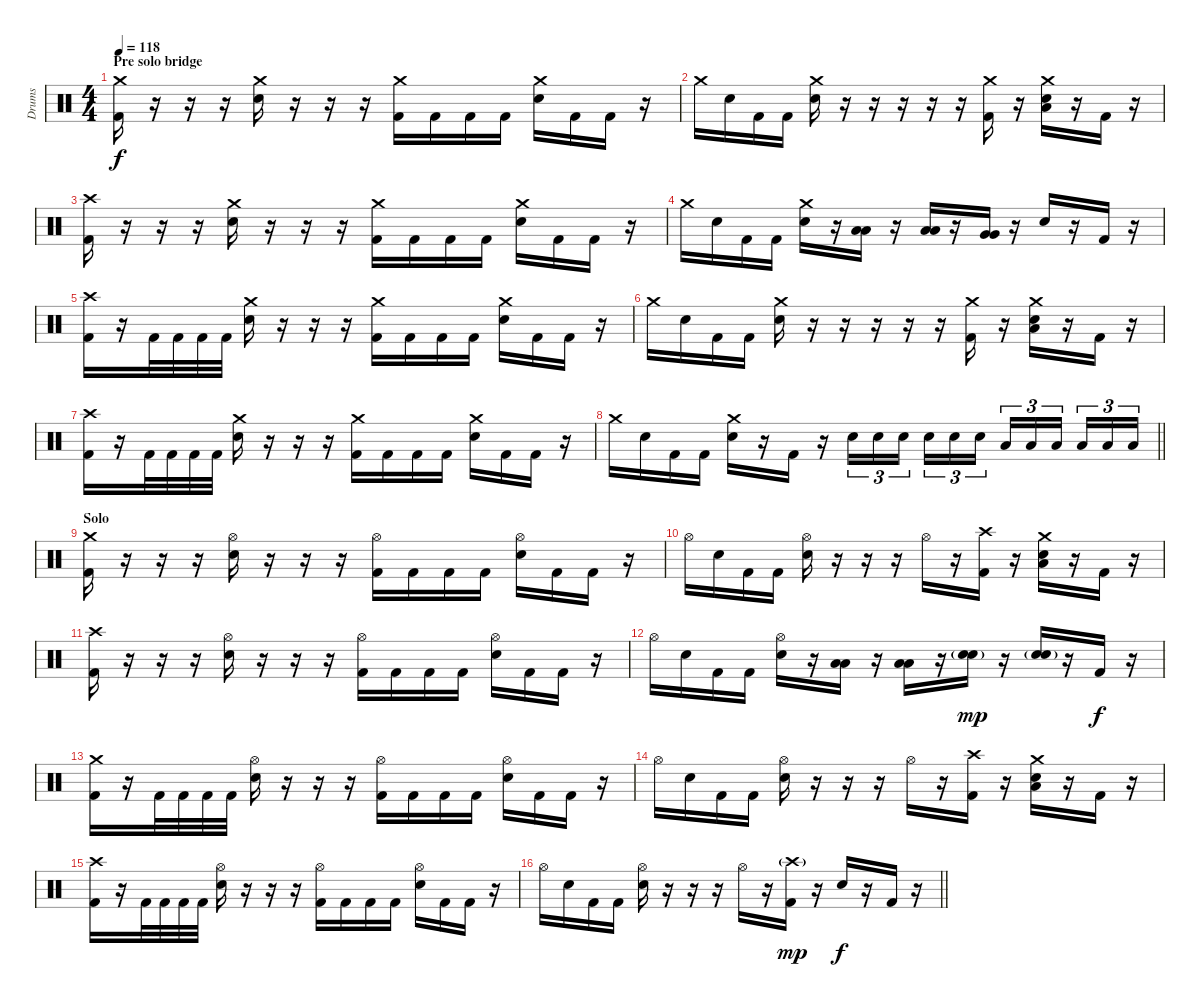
\track ("Drums" "Drums") {instrument percussion}
\staff {score}
\articulation defaults
\ts (4 4)
\section ("" "Pre solo bridge")
\tempo 118
\clef neutral
\ks c
("Crash medium (hit)" "Kick (hit) 2").16{dy f} r.16 r.16 r.16 ("Crash medium (hit)" "Electric Snare (hit)").16 r.16 r.16 r.16 ("Crash medium (hit)" "Kick (hit) 2").16 "Kick (hit) 2".16 "Kick (hit) 2".16 "Kick (hit) 2".16 ("Crash medium (hit)" "Electric Snare (hit)").16 "Kick (hit) 2".16 "Kick (hit) 2".16 r.16 |
"Crash medium (hit)".16 "Electric Snare (hit)".16 "Kick (hit) 2".16 "Kick (hit) 2".16 ("Crash medium (hit)" "Electric Snare (hit)").16 r.16 r.16 r.16 r.16 r.16 ("Crash medium (hit)" "Kick (hit) 2").16 r.16 ("Crash medium (hit)" "Low Floor Tom (hit)" "Electric Snare (hit)").16 r.16 "Kick (hit) 2".16 r.16 |
("Crash high (hit)" "Kick (hit) 2").16 r.16 r.16 r.16 ("Crash medium (hit)" "Electric Snare (hit)").16 r.16 r.16 r.16 ("Crash medium (hit)" "Kick (hit) 2").16 "Kick (hit) 2".16 "Kick (hit) 2".16 "Kick (hit) 2".16 ("Crash medium (hit)" "Electric Snare (hit)").16 "Kick (hit) 2".16 "Kick (hit) 2".16 r.16 |
"Crash medium (hit)".16 "Electric Snare (hit)".16 "Kick (hit) 2".16 "Kick (hit) 2".16 ("Crash medium (hit)" "Electric Snare (hit)").16 r.16 ("Low Tom (hit)" "Low Tom (hit)").16 r.16 ("Low Tom (hit)" "Low Tom (hit)").16 r.16 ("Very Low Tom (hit)" "Very Low Tom (hit)").16 r.16 "Electric Snare (hit)".16 r.16 "Kick (hit) 2".16 r.16 |
("Crash high (hit)" "Kick (hit) 2").16 r.16 "Kick (hit) 2".32 "Kick (hit) 2".32 "Kick (hit) 2".32 "Kick (hit) 2".32 ("Crash medium (hit)" "Electric Snare (hit)").16 r.16 r.16 r.16 ("Crash medium (hit)" "Kick (hit) 2").16 "Kick (hit) 2".16 "Kick (hit) 2".16 "Kick (hit) 2".16 ("Crash medium (hit)" "Electric Snare (hit)").16 "Kick (hit) 2".16 "Kick (hit) 2".16 r.16 |
"Crash medium (hit)".16 "Electric Snare (hit)".16 "Kick (hit) 2".16 "Kick (hit) 2".16 ("Crash medium (hit)" "Electric Snare (hit)").16 r.16 r.16 r.16 r.16 r.16 ("Crash medium (hit)" "Kick (hit) 2").16 r.16 ("Crash medium (hit)" "Low Floor Tom (hit)" "Electric Snare (hit)").16 r.16 "Kick (hit) 2".16 r.16 |
("Crash high (hit)" "Kick (hit) 2").16 r.16 "Kick (hit) 2".32 "Kick (hit) 2".32 "Kick (hit) 2".32 "Kick (hit) 2".32 ("Crash medium (hit)" "Electric Snare (hit)").16 r.16 r.16 r.16 ("Crash medium (hit)" "Kick (hit) 2").16 "Kick (hit) 2".16 "Kick (hit) 2".16 "Kick (hit) 2".16 ("Crash medium (hit)" "Electric Snare (hit)").16 "Kick (hit) 2".16 "Kick (hit) 2".16 r.16 |
\barLineRight lightlight "Crash medium (hit)".16 "Electric Snare (hit)".16 "Kick (hit) 2".16 "Kick (hit) 2".16
("Crash medium (hit)" "Electric Snare (hit)").16 r.16 "Kick (hit) 2".16 r.16 "Electric Snare (hit)".16{tu (3 2)} "Electric Snare (hit)".16{tu (3 2)} "Electric Snare (hit)".16{tu (3 2) beam splitsecondary} "Electric Snare (hit)".16{tu (3 2)} "Electric Snare (hit)".16{tu (3 2)} "Electric Snare (hit)".16{tu (3 2)} "Low Tom (hit)".16{tu (3 2)} "Low Tom (hit)".16{tu (3 2)} "Low Tom (hit)".16{tu (3 2) beam splitsecondary} "Low Tom (hit)".16{tu (3 2)} "Low Tom (hit)".16{tu (3 2)} "Low Tom (hit)".16{tu (3 2)} |
\section ("" "Solo")
("Crash medium (hit)" "Kick (hit) 2").16 r.16 r.16 r.16 ("Hi-Hat (open)" "Electric Snare (hit)").16 r.16 r.16 r.16 ("Hi-Hat (open)" "Kick (hit) 2").16 "Kick (hit) 2".16 "Kick (hit) 2".16 "Kick (hit) 2".16 ("Hi-Hat (open)" "Electric Snare (hit)").16 "Kick (hit) 2".16 "Kick (hit) 2".16 r.16 |
"Hi-Hat (open)".16 "Electric Snare (hit)".16 "Kick (hit) 2".16 "Kick (hit) 2".16 ("Hi-Hat (open)" "Electric Snare (hit)").16 r.16 r.16 r.16 "Hi-Hat (open)".16 r.16 ("Crash high (hit)" "Kick (hit) 2").16 r.16 ("Crash medium (hit)" "Low Floor Tom (hit)" "Electric Snare (hit)").16 r.16 "Kick (hit) 2".16 r.16 |
("Crash high (hit)" "Kick (hit) 2").16 r.16 r.16 r.16 ("Hi-Hat (open)" "Electric Snare (hit)").16 r.16 r.16 r.16 ("Hi-Hat (open)" "Kick (hit) 2").16 "Kick (hit) 2".16 "Kick (hit) 2".16 "Kick (hit) 2".16 ("Hi-Hat (open)" "Electric Snare (hit)").16 "Kick (hit) 2".16 "Kick (hit) 2".16 r.16 |
"Hi-Hat (open)".16 "Electric Snare (hit)".16 "Kick (hit) 2".16 "Kick (hit) 2".16 ("Hi-Hat (open)" "Electric Snare (hit)").16 r.16 ("Low Tom (hit)" "Low Tom (hit)").16 r.16 ("Low Tom (hit)" "Low Tom (hit)").16 r.16 ("Electric Snare (hit)"{g} "Electric Snare (hit)").16{dy mp} r.16 ("Electric Snare (hit)"{g} "Electric Snare (hit)").16 r.16 "Kick (hit) 2".16{dy f} r.16 |
("Crash medium (hit)" "Kick (hit) 2").16 r.16 "Kick (hit) 2".32 "Kick (hit) 2".32 "Kick (hit) 2".32 "Kick (hit) 2".32 ("Hi-Hat (open)" "Electric Snare (hit)").16 r.16 r.16 r.16 ("Hi-Hat (open)" "Kick (hit) 2").16 "Kick (hit) 2".16 "Kick (hit) 2".16 "Kick (hit) 2".16 ("Hi-Hat (open)" "Electric Snare (hit)").16 "Kick (hit) 2".16 "Kick (hit) 2".16 r.16 |
"Hi-Hat (open)".16 "Electric Snare (hit)".16 "Kick (hit) 2".16 "Kick (hit) 2".16 ("Hi-Hat (open)" "Electric Snare (hit)").16 r.16 r.16 r.16 "Hi-Hat (open)".16 r.16 ("Crash high (hit)" "Kick (hit) 2").16 r.16 ("Crash medium (hit)" "Low Floor Tom (hit)" "Electric Snare (hit)").16 r.16 "Kick (hit) 2".16 r.16 |
("Crash high (hit)" "Kick (hit) 2").16 r.16 "Kick (hit) 2".32 "Kick (hit) 2".32 "Kick (hit) 2".32 "Kick (hit) 2".32 ("Hi-Hat (open)" "Electric Snare (hit)").16 r.16 r.16 r.16 ("Hi-Hat (open)" "Kick (hit) 2").16 "Kick (hit) 2".16 "Kick (hit) 2".16 "Kick (hit) 2".16 ("Hi-Hat (open)" "Electric Snare (hit)").16 "Kick (hit) 2".16 "Kick (hit) 2".16 r.16 |
\barLineRight lightlight "Hi-Hat (open)".16 "Electric Snare (hit)".16 "Kick (hit) 2".16 "Kick (hit) 2".16
("Hi-Hat (open)" "Electric Snare (hit)").16 r.16 r.16 r.16 "Hi-Hat (open)".16 r.16 ("Crash high (hit)"{g} "Kick (hit) 2").16{dy mp} r.16 "Electric Snare (hit)".16{dy f} r.16 "Kick (hit) 2".16 r.16
